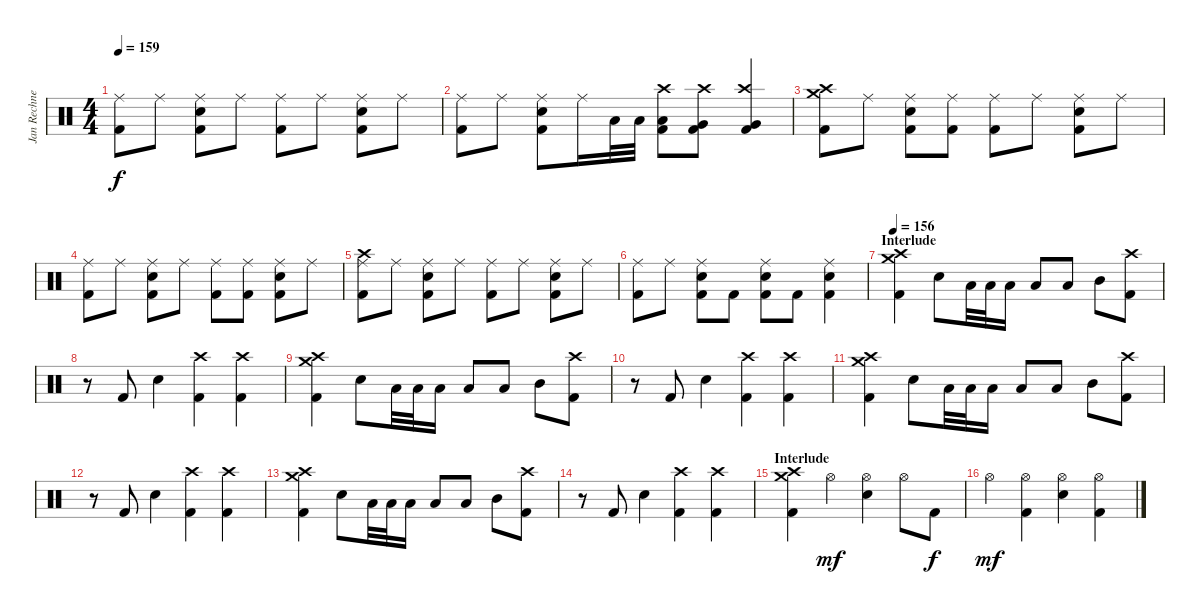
\track ("Jan Rechnerger" "Jan Rechne") {instrument percussion}
\staff {score}
\articulation defaults
\ts (4 4)
\tempo 159
\clef neutral
\ks c
("Ride (middle)" "Kick (hit) 2").8{dy f} "Ride (middle)".8 ("Ride (middle)" "Snare (hit) 2" "Kick (hit) 2").8 "Ride (middle)".8 ("Ride (middle)" "Kick (hit) 2").8 "Ride (middle)".8 ("Ride (middle)" "Snare (hit) 2" "Kick (hit) 2").8 "Ride (middle)".8 |
("Ride (middle)" "Kick (hit) 2").8 "Ride (middle)".8 ("Ride (middle)" "Snare (hit) 2" "Kick (hit) 2").8 "Ride (middle)".16 "Low Tom (hit)".32 "Low Tom (hit)".32 ("Crash high (hit)" "Low Tom (hit)" "Kick (hit) 2").8 ("Crash high (hit)" "Very Low Tom (hit)" "Kick (hit) 2").8 ("Crash high (hit)" "Very Low Tom (hit)" "Kick (hit) 2").4 |
("Crash high (hit)" "Crash medium (hit)" "Kick (hit) 2").8 "Ride (middle)".8 ("Ride (middle)" "Snare (hit) 2" "Kick (hit) 2").8 ("Ride (middle)" "Kick (hit) 2").8 ("Ride (middle)" "Kick (hit) 2").8 "Ride (middle)".8 ("Ride (middle)" "Snare (hit) 2" "Kick (hit) 2").8 "Ride (middle)".8 |
("Ride (middle)" "Kick (hit) 2").8 "Ride (middle)".8 ("Ride (middle)" "Snare (hit) 2" "Kick (hit) 2").8 "Ride (middle)".8 ("Ride (middle)" "Kick (hit) 2").8 ("Ride (middle)" "Kick (hit) 2").8 ("Ride (middle)" "Snare (hit) 2" "Kick (hit) 2").8 "Ride (middle)".8 |
("Crash high (hit)" "Ride (middle)" "Kick (hit) 2").8 "Ride (middle)".8 ("Ride (middle)" "Snare (hit) 2" "Kick (hit) 2").8 "Ride (middle)".8 ("Ride (middle)" "Kick (hit) 2").8 "Ride (middle)".8 ("Ride (middle)" "Snare (hit) 2" "Kick (hit) 2").8 "Ride (middle)".8 |
("Ride (middle)" "Kick (hit) 2").8 "Ride (middle)".8 ("Ride (middle)" "Snare (hit) 2" "Kick (hit) 2").8 "Kick (hit) 2".8 ("Ride (middle)" "Snare (hit) 2" "Kick (hit) 2").8 "Kick (hit) 2".8 ("Ride (middle)" "Snare (hit) 2" "Kick (hit) 2").4 |
\section ("" "Interlude")
\tempo 156
("Crash high (hit)" "Crash medium (hit)" "Kick (hit) 2").4 "Snare (hit) 2".8 "Low Tom (hit)".32 "Low Tom (hit)".32 "Low Tom (hit)".16 "Low Tom (hit)".8 "Low Tom (hit)".8 "Mid Tom (hit)".8 ("Crash high (hit)" "Kick (hit) 2").8 |
r.8 "Kick (hit) 2".8 "Snare (hit) 2".4 ("Crash high (hit)" "Kick (hit) 2").4 ("Crash high (hit)" "Kick (hit) 2").4 |
("Crash high (hit)" "Crash medium (hit)" "Kick (hit) 2").4 "Snare (hit) 2".8 "Low Tom (hit)".32 "Low Tom (hit)".32 "Low Tom (hit)".16 "Low Tom (hit)".8 "Low Tom (hit)".8 "Mid Tom (hit)".8 ("Crash high (hit)" "Kick (hit) 2").8 |
r.8 "Kick (hit) 2".8 "Snare (hit) 2".4 ("Crash high (hit)" "Kick (hit) 2").4 ("Crash high (hit)" "Kick (hit) 2").4 |
("Crash high (hit)" "Crash medium (hit)" "Kick (hit) 2").4 "Snare (hit) 2".8 "Low Tom (hit)".32 "Low Tom (hit)".32 "Low Tom (hit)".16 "Low Tom (hit)".8 "Low Tom (hit)".8 "Mid Tom (hit)".8 ("Crash high (hit)" "Kick (hit) 2").8 |
r.8 "Kick (hit) 2".8 "Snare (hit) 2".4 ("Crash high (hit)" "Kick (hit) 2").4 ("Crash high (hit)" "Kick (hit) 2").4 |
("Crash high (hit)" "Crash medium (hit)" "Kick (hit) 2").4 "Snare (hit) 2".8 "Low Tom (hit)".32 "Low Tom (hit)".32 "Low Tom (hit)".16 "Low Tom (hit)".8 "Low Tom (hit)".8 "Mid Tom (hit)".8 ("Crash high (hit)" "Kick (hit) 2").8 |
r.8 "Kick (hit) 2".8 "Snare (hit) 2".4 ("Crash high (hit)" "Kick (hit) 2").4 ("Crash high (hit)" "Kick (hit) 2").4 |
\section ("" "Interlude")
("Crash high (hit)" "Crash medium (hit)" "Kick (hit) 2").4 "Hi-Hat (open)".4{dy mf} ("Hi-Hat (open)" "Snare (hit) 2").4 "Hi-Hat (open)".8 "Kick (hit) 2".8{dy f} |
"Hi-Hat (open)".4{dy mf} ("Hi-Hat (open)" "Kick (hit) 2").4 ("Hi-Hat (open)" "Snare (hit) 2").4 ("Hi-Hat (open)" "Kick (hit) 2").4
